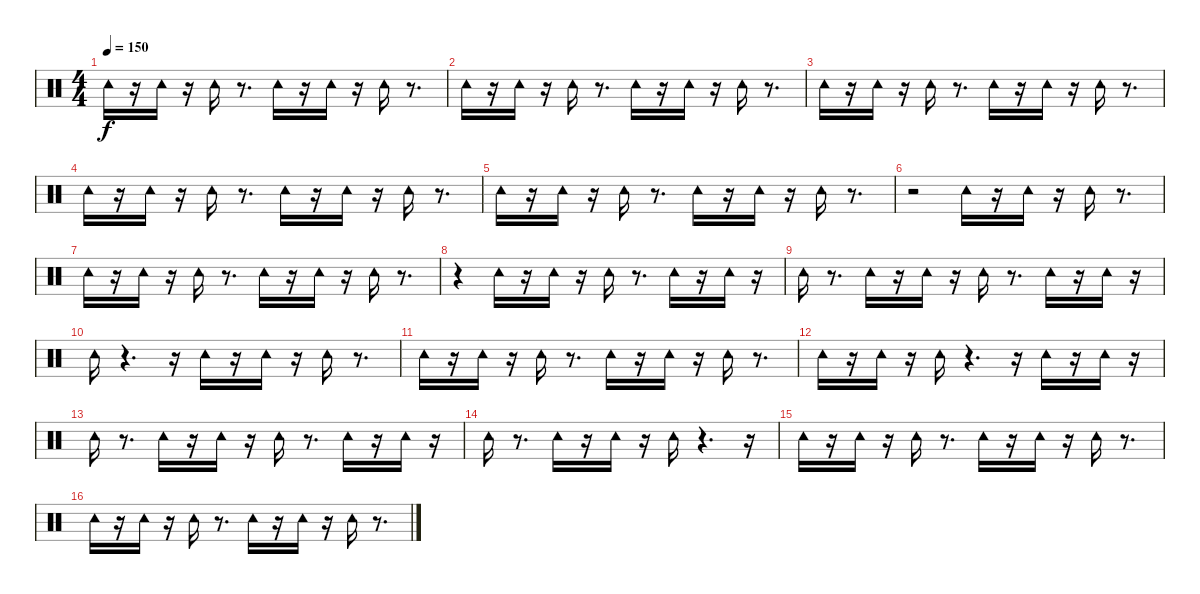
\track "" {instrument percussion}
\staff {score}
\articulation defaults
\ts (4 4)
\tempo 150
\clef neutral
\ks c "Tambourine (hit)".16{dy f}
r.16 "Tambourine (hit)".16 r.16 "Tambourine (hit)".16 r.8{d} "Tambourine (hit)".16 r.16 "Tambourine (hit)".16 r.16 "Tambourine (hit)".16 r.8{d} |
"Tambourine (hit)".16 r.16 "Tambourine (hit)".16 r.16 "Tambourine (hit)".16 r.8{d} "Tambourine (hit)".16 r.16 "Tambourine (hit)".16 r.16 "Tambourine (hit)".16 r.8{d} |
"Tambourine (hit)".16 r.16 "Tambourine (hit)".16 r.16 "Tambourine (hit)".16 r.8{d} "Tambourine (hit)".16 r.16 "Tambourine (hit)".16 r.16 "Tambourine (hit)".16 r.8{d} |
"Tambourine (hit)".16 r.16 "Tambourine (hit)".16 r.16 "Tambourine (hit)".16 r.8{d} "Tambourine (hit)".16 r.16 "Tambourine (hit)".16 r.16 "Tambourine (hit)".16 r.8{d} |
"Tambourine (hit)".16 r.16 "Tambourine (hit)".16 r.16 "Tambourine (hit)".16 r.8{d} "Tambourine (hit)".16 r.16 "Tambourine (hit)".16 r.16 "Tambourine (hit)".16 r.8{d} |
r.2 "Tambourine (hit)".16 r.16 "Tambourine (hit)".16 r.16 "Tambourine (hit)".16 r.8{d} |
"Tambourine (hit)".16 r.16 "Tambourine (hit)".16 r.16 "Tambourine (hit)".16 r.8{d} "Tambourine (hit)".16 r.16 "Tambourine (hit)".16 r.16 "Tambourine (hit)".16 r.8{d} |
r.4 "Tambourine (hit)".16 r.16 "Tambourine (hit)".16 r.16 "Tambourine (hit)".16 r.8{d} "Tambourine (hit)".16 r.16 "Tambourine (hit)".16 r.16 |
"Tambourine (hit)".16 r.8{d} "Tambourine (hit)".16 r.16 "Tambourine (hit)".16 r.16 "Tambourine (hit)".16 r.8{d} "Tambourine (hit)".16 r.16 "Tambourine (hit)".16 r.16 |
"Tambourine (hit)".16 r.4{d} r.16 "Tambourine (hit)".16 r.16 "Tambourine (hit)".16 r.16 "Tambourine (hit)".16 r.8{d} |
"Tambourine (hit)".16 r.16 "Tambourine (hit)".16 r.16 "Tambourine (hit)".16 r.8{d} "Tambourine (hit)".16 r.16 "Tambourine (hit)".16 r.16 "Tambourine (hit)".16 r.8{d} |
"Tambourine (hit)".16 r.16 "Tambourine (hit)".16 r.16 "Tambourine (hit)".16 r.4{d} r.16 "Tambourine (hit)".16 r.16 "Tambourine (hit)".16 r.16 |
"Tambourine (hit)".16 r.8{d} "Tambourine (hit)".16 r.16 "Tambourine (hit)".16 r.16 "Tambourine (hit)".16 r.8{d} "Tambourine (hit)".16 r.16 "Tambourine (hit)".16 r.16 |
"Tambourine (hit)".16 r.8{d} "Tambourine (hit)".16 r.16 "Tambourine (hit)".16 r.16 "Tambourine (hit)".16 r.4{d} r.16 |
"Tambourine (hit)".16 r.16 "Tambourine (hit)".16 r.16 "Tambourine (hit)".16 r.8{d} "Tambourine (hit)".16 r.16 "Tambourine (hit)".16 r.16 "Tambourine (hit)".16 r.8{d} |
"Tambourine (hit)".16 r.16 "Tambourine (hit)".16 r.16 "Tambourine (hit)".16 r.8{d} "Tambourine (hit)".16 r.16 "Tambourine (hit)".16 r.16 "Tambourine (hit)".16 r.8{d}
